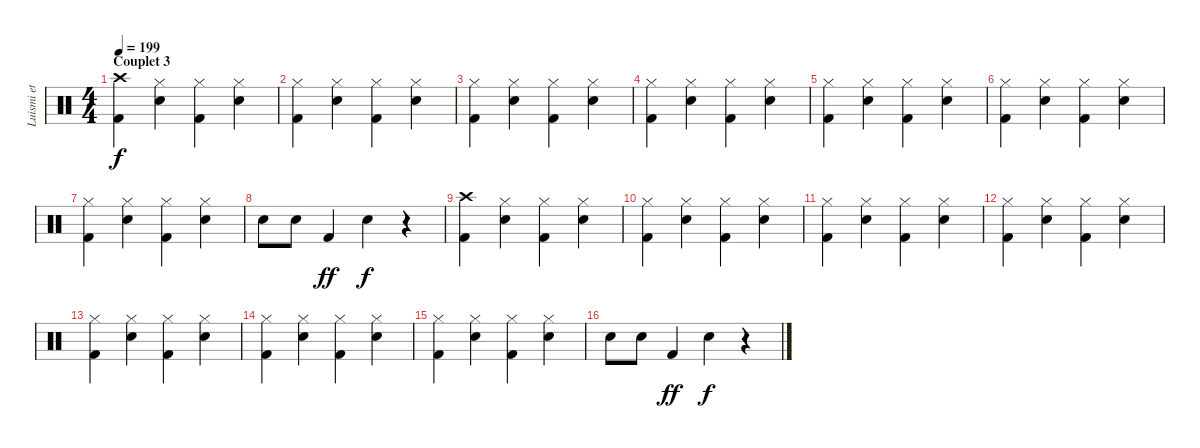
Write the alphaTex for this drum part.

\track ("Luismi et ses castagnettes" "Luismi et ") {instrument percussion}
\staff {score}
\articulation defaults
\ts (4 4)
\section ("" "Couplet 3")
\tempo 199
\clef neutral
\ks c
("Crash high (hit)" "Kick (hit) 2").4{dy f} ("Hi-Hat (closed)" "Snare (hit) 2").4 ("Hi-Hat (closed)" "Kick (hit) 2").4 ("Hi-Hat (closed)" "Snare (hit) 2").4 |
("Hi-Hat (closed)" "Kick (hit) 2").4 ("Hi-Hat (closed)" "Snare (hit) 2").4 ("Hi-Hat (closed)" "Kick (hit) 2").4 ("Hi-Hat (closed)" "Snare (hit) 2").4 |
("Hi-Hat (closed)" "Kick (hit) 2").4 ("Hi-Hat (closed)" "Snare (hit) 2").4 ("Hi-Hat (closed)" "Kick (hit) 2").4 ("Hi-Hat (closed)" "Snare (hit) 2").4 |
("Hi-Hat (closed)" "Kick (hit) 2").4 ("Hi-Hat (closed)" "Snare (hit) 2").4 ("Hi-Hat (closed)" "Kick (hit) 2").4 ("Hi-Hat (closed)" "Snare (hit) 2").4 |
("Hi-Hat (closed)" "Kick (hit) 2").4 ("Hi-Hat (closed)" "Snare (hit) 2").4 ("Hi-Hat (closed)" "Kick (hit) 2").4 ("Hi-Hat (closed)" "Snare (hit) 2").4 |
("Hi-Hat (closed)" "Kick (hit) 2").4 ("Hi-Hat (closed)" "Snare (hit) 2").4 ("Hi-Hat (closed)" "Kick (hit) 2").4 ("Hi-Hat (closed)" "Snare (hit) 2").4 |
("Hi-Hat (closed)" "Kick (hit) 2").4 ("Hi-Hat (closed)" "Snare (hit) 2").4 ("Hi-Hat (closed)" "Kick (hit) 2").4 ("Hi-Hat (closed)" "Snare (hit) 2").4 |
"Snare (hit) 2".8 "Snare (hit) 2".8 "Kick (hit) 2".4{dy ff} "Snare (hit) 2".4{dy f} r.4 |
("Crash high (hit)" "Kick (hit) 2").4 ("Hi-Hat (closed)" "Snare (hit) 2").4 ("Hi-Hat (closed)" "Kick (hit) 2").4 ("Hi-Hat (closed)" "Snare (hit) 2").4 |
("Hi-Hat (closed)" "Kick (hit) 2").4 ("Hi-Hat (closed)" "Snare (hit) 2").4 ("Hi-Hat (closed)" "Kick (hit) 2").4 ("Hi-Hat (closed)" "Snare (hit) 2").4 |
("Hi-Hat (closed)" "Kick (hit) 2").4 ("Hi-Hat (closed)" "Snare (hit) 2").4 ("Hi-Hat (closed)" "Kick (hit) 2").4 ("Hi-Hat (closed)" "Snare (hit) 2").4 |
("Hi-Hat (closed)" "Kick (hit) 2").4 ("Hi-Hat (closed)" "Snare (hit) 2").4 ("Hi-Hat (closed)" "Kick (hit) 2").4 ("Hi-Hat (closed)" "Snare (hit) 2").4 |
("Hi-Hat (closed)" "Kick (hit) 2").4 ("Hi-Hat (closed)" "Snare (hit) 2").4 ("Hi-Hat (closed)" "Kick (hit) 2").4 ("Hi-Hat (closed)" "Snare (hit) 2").4 |
("Hi-Hat (closed)" "Kick (hit) 2").4 ("Hi-Hat (closed)" "Snare (hit) 2").4 ("Hi-Hat (closed)" "Kick (hit) 2").4 ("Hi-Hat (closed)" "Snare (hit) 2").4 |
("Hi-Hat (closed)" "Kick (hit) 2").4 ("Hi-Hat (closed)" "Snare (hit) 2").4 ("Hi-Hat (closed)" "Kick (hit) 2").4 ("Hi-Hat (closed)" "Snare (hit) 2").4 |
"Snare (hit) 2".8 "Snare (hit) 2".8 "Kick (hit) 2".4{dy ff} "Snare (hit) 2".4{dy f} r.4
